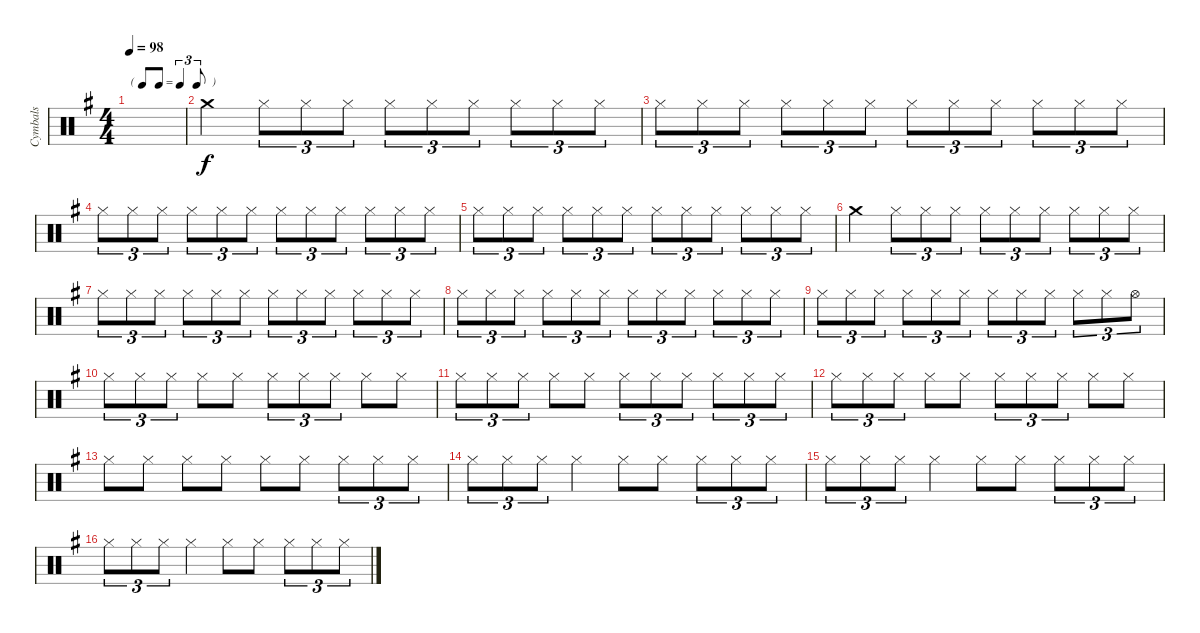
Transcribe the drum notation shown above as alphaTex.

\track ("Cymbals" "Cymbals") {instrument percussion}
\staff {score}
\articulation defaults
\ts (4 4)
\tf triplet8th
\tempo 98
\clef neutral
\ks g
|
"Crash medium (hit)".4 "Hi-Hat (closed)".8{tu (3 2)} "Hi-Hat (closed)".8{tu (3 2)} "Hi-Hat (closed)".8{tu (3 2)} "Hi-Hat (closed)".8{tu (3 2)} "Hi-Hat (closed)".8{tu (3 2)} "Hi-Hat (closed)".8{tu (3 2)} "Hi-Hat (closed)".8{tu (3 2)} "Hi-Hat (closed)".8{tu (3 2)} "Hi-Hat (closed)".8{tu (3 2)} |
"Hi-Hat (closed)".8{tu (3 2)} "Hi-Hat (closed)".8{tu (3 2)} "Hi-Hat (closed)".8{tu (3 2)} "Hi-Hat (closed)".8{tu (3 2)} "Hi-Hat (closed)".8{tu (3 2)} "Hi-Hat (closed)".8{tu (3 2)} "Hi-Hat (closed)".8{tu (3 2)} "Hi-Hat (closed)".8{tu (3 2)} "Hi-Hat (closed)".8{tu (3 2)} "Hi-Hat (closed)".8{tu (3 2)} "Hi-Hat (closed)".8{tu (3 2)} "Hi-Hat (closed)".8{tu (3 2)} |
"Hi-Hat (closed)".8{tu (3 2)} "Hi-Hat (closed)".8{tu (3 2)} "Hi-Hat (closed)".8{tu (3 2)} "Hi-Hat (closed)".8{tu (3 2)} "Hi-Hat (closed)".8{tu (3 2)} "Hi-Hat (closed)".8{tu (3 2)} "Hi-Hat (closed)".8{tu (3 2)} "Hi-Hat (closed)".8{tu (3 2)} "Hi-Hat (closed)".8{tu (3 2)} "Hi-Hat (closed)".8{tu (3 2)} "Hi-Hat (closed)".8{tu (3 2)} "Hi-Hat (closed)".8{tu (3 2)} |
"Hi-Hat (closed)".8{tu (3 2)} "Hi-Hat (closed)".8{tu (3 2)} "Hi-Hat (closed)".8{tu (3 2)} "Hi-Hat (closed)".8{tu (3 2)} "Hi-Hat (closed)".8{tu (3 2)} "Hi-Hat (closed)".8{tu (3 2)} "Hi-Hat (closed)".8{tu (3 2)} "Hi-Hat (closed)".8{tu (3 2)} "Hi-Hat (closed)".8{tu (3 2)} "Hi-Hat (closed)".8{tu (3 2)} "Hi-Hat (closed)".8{tu (3 2)} "Hi-Hat (closed)".8{tu (3 2)} |
"Crash medium (hit)".4 "Hi-Hat (closed)".8{tu (3 2)} "Hi-Hat (closed)".8{tu (3 2)} "Hi-Hat (closed)".8{tu (3 2)} "Hi-Hat (closed)".8{tu (3 2)} "Hi-Hat (closed)".8{tu (3 2)} "Hi-Hat (closed)".8{tu (3 2)} "Hi-Hat (closed)".8{tu (3 2)} "Hi-Hat (closed)".8{tu (3 2)} "Hi-Hat (closed)".8{tu (3 2)} |
"Hi-Hat (closed)".8{tu (3 2)} "Hi-Hat (closed)".8{tu (3 2)} "Hi-Hat (closed)".8{tu (3 2)} "Hi-Hat (closed)".8{tu (3 2)} "Hi-Hat (closed)".8{tu (3 2)} "Hi-Hat (closed)".8{tu (3 2)} "Hi-Hat (closed)".8{tu (3 2)} "Hi-Hat (closed)".8{tu (3 2)} "Hi-Hat (closed)".8{tu (3 2)} "Hi-Hat (closed)".8{tu (3 2)} "Hi-Hat (closed)".8{tu (3 2)} "Hi-Hat (closed)".8{tu (3 2)} |
"Hi-Hat (closed)".8{tu (3 2)} "Hi-Hat (closed)".8{tu (3 2)} "Hi-Hat (closed)".8{tu (3 2)} "Hi-Hat (closed)".8{tu (3 2)} "Hi-Hat (closed)".8{tu (3 2)} "Hi-Hat (closed)".8{tu (3 2)} "Hi-Hat (closed)".8{tu (3 2)} "Hi-Hat (closed)".8{tu (3 2)} "Hi-Hat (closed)".8{tu (3 2)} "Hi-Hat (closed)".8{tu (3 2)} "Hi-Hat (closed)".8{tu (3 2)} "Hi-Hat (closed)".8{tu (3 2)} |
"Hi-Hat (closed)".8{tu (3 2)} "Hi-Hat (closed)".8{tu (3 2)} "Hi-Hat (closed)".8{tu (3 2)} "Hi-Hat (closed)".8{tu (3 2)} "Hi-Hat (closed)".8{tu (3 2)} "Hi-Hat (closed)".8{tu (3 2)} "Hi-Hat (closed)".8{tu (3 2)} "Hi-Hat (closed)".8{tu (3 2)} "Hi-Hat (closed)".8{tu (3 2)} "Hi-Hat (closed)".8{tu (3 2)} "Hi-Hat (closed)".8{tu (3 2)} "Hi-Hat (open)".8{tu (3 2)} |
"Hi-Hat (closed)".8{tu (3 2)} "Hi-Hat (closed)".8{tu (3 2)} "Hi-Hat (closed)".8{tu (3 2)} "Hi-Hat (closed)".8 "Hi-Hat (closed)".8 "Hi-Hat (closed)".8{tu (3 2)} "Hi-Hat (closed)".8{tu (3 2)} "Hi-Hat (closed)".8{tu (3 2)} "Hi-Hat (closed)".8 "Hi-Hat (closed)".8 |
"Hi-Hat (closed)".8{tu (3 2)} "Hi-Hat (closed)".8{tu (3 2)} "Hi-Hat (closed)".8{tu (3 2)} "Hi-Hat (closed)".8 "Hi-Hat (closed)".8 "Hi-Hat (closed)".8{tu (3 2)} "Hi-Hat (closed)".8{tu (3 2)} "Hi-Hat (closed)".8{tu (3 2)} "Hi-Hat (closed)".8{tu (3 2)} "Hi-Hat (closed)".8{tu (3 2)} "Hi-Hat (closed)".8{tu (3 2)} |
"Hi-Hat (closed)".8{tu (3 2)} "Hi-Hat (closed)".8{tu (3 2)} "Hi-Hat (closed)".8{tu (3 2)} "Hi-Hat (closed)".8 "Hi-Hat (closed)".8 "Hi-Hat (closed)".8{tu (3 2)} "Hi-Hat (closed)".8{tu (3 2)} "Hi-Hat (closed)".8{tu (3 2)} "Hi-Hat (closed)".8 "Hi-Hat (closed)".8 |
"Hi-Hat (closed)".8 "Hi-Hat (closed)".8 "Hi-Hat (closed)".8 "Hi-Hat (closed)".8 "Hi-Hat (closed)".8 "Hi-Hat (closed)".8 "Hi-Hat (closed)".8{tu (3 2)} "Hi-Hat (closed)".8{tu (3 2)} "Hi-Hat (closed)".8{tu (3 2)} |
"Hi-Hat (closed)".8{tu (3 2)} "Hi-Hat (closed)".8{tu (3 2)} "Hi-Hat (closed)".8{tu (3 2)} "Hi-Hat (closed)".4 "Hi-Hat (closed)".8 "Hi-Hat (closed)".8 "Hi-Hat (closed)".8{tu (3 2)} "Hi-Hat (closed)".8{tu (3 2)} "Hi-Hat (closed)".8{tu (3 2)} |
"Hi-Hat (closed)".8{tu (3 2)} "Hi-Hat (closed)".8{tu (3 2)} "Hi-Hat (closed)".8{tu (3 2)} "Hi-Hat (closed)".4 "Hi-Hat (closed)".8 "Hi-Hat (closed)".8 "Hi-Hat (closed)".8{tu (3 2)} "Hi-Hat (closed)".8{tu (3 2)} "Hi-Hat (closed)".8{tu (3 2)} |
"Hi-Hat (closed)".8{tu (3 2)} "Hi-Hat (closed)".8{tu (3 2)} "Hi-Hat (closed)".8{tu (3 2)} "Hi-Hat (closed)".4 "Hi-Hat (closed)".8 "Hi-Hat (closed)".8 "Hi-Hat (closed)".8{tu (3 2)} "Hi-Hat (closed)".8{tu (3 2)} "Hi-Hat (closed)".8{tu (3 2)}
